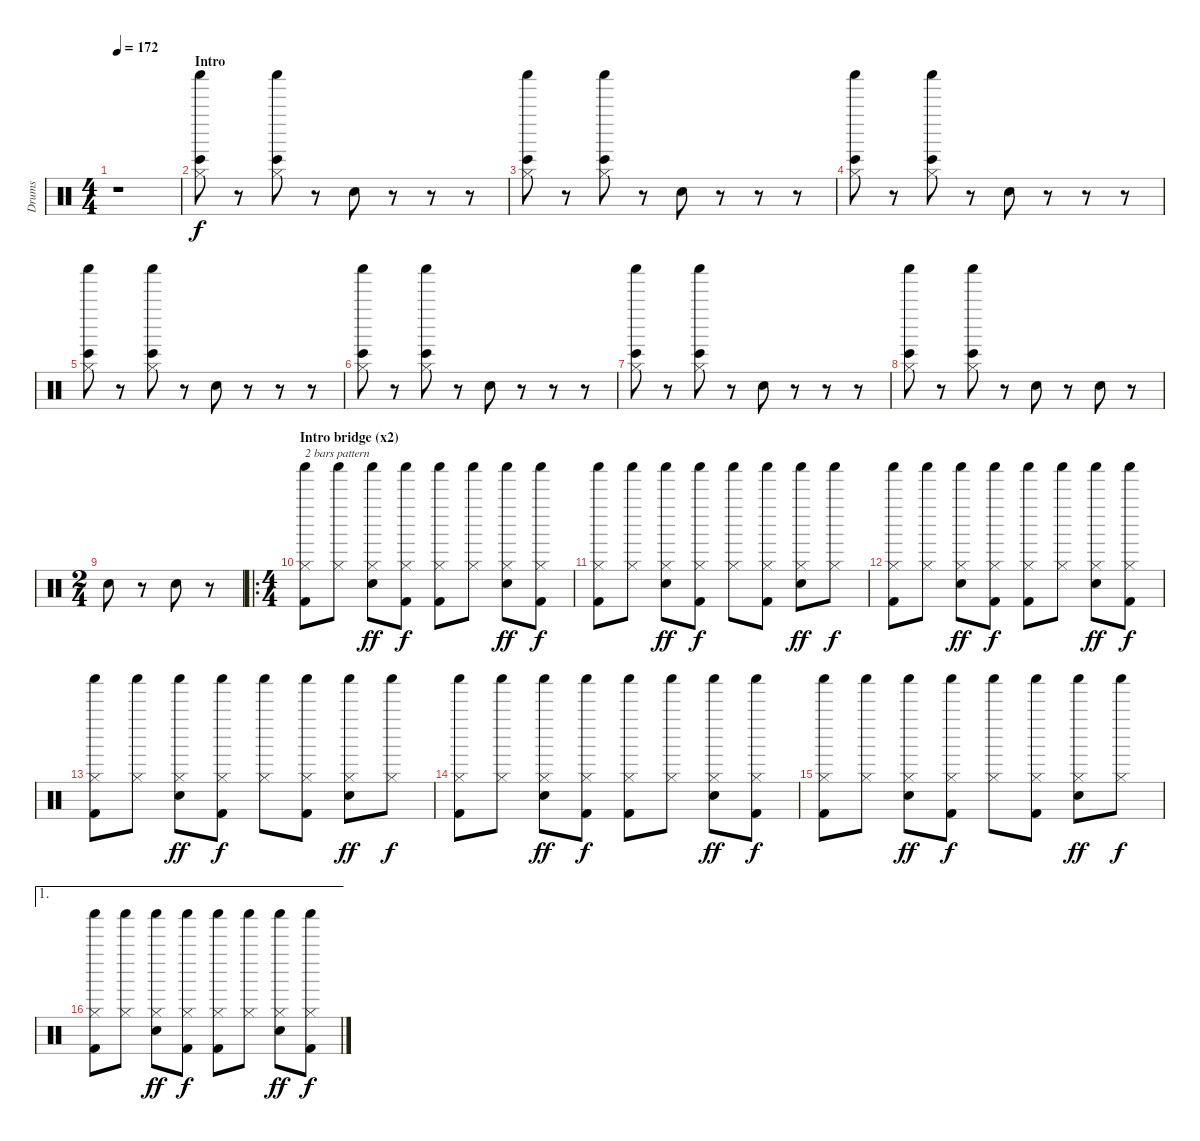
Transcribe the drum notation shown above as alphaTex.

\track ("Drums" "Drums") {instrument percussion}
\staff {score}
\articulation defaults
\ts (4 4)
\tempo 172
\clef neutral
\ks c
r.1{dy f} |
\section ("" "Intro")
("Shaker (hit)" "Bongo High (hit)" "Hi-Hat (closed)").8 r.8 ("Shaker (hit)" "Bongo High (hit)" "Hi-Hat (closed)").8 r.8 "Electric Snare (hit)".8 r.8 r.8 r.8 |
("Shaker (hit)" "Bongo High (hit)" "Hi-Hat (closed)").8 r.8 ("Shaker (hit)" "Bongo High (hit)" "Hi-Hat (closed)").8 r.8 "Electric Snare (hit)".8 r.8 r.8 r.8 |
("Shaker (hit)" "Bongo High (hit)" "Hi-Hat (closed)").8 r.8 ("Shaker (hit)" "Bongo High (hit)" "Hi-Hat (closed)").8 r.8 "Electric Snare (hit)".8 r.8 r.8 r.8 |
("Shaker (hit)" "Bongo High (hit)" "Hi-Hat (closed)").8 r.8 ("Shaker (hit)" "Bongo High (hit)" "Hi-Hat (closed)").8 r.8 "Electric Snare (hit)".8 r.8 r.8 r.8 |
("Shaker (hit)" "Bongo High (hit)" "Hi-Hat (closed)").8 r.8 ("Shaker (hit)" "Bongo High (hit)" "Hi-Hat (closed)").8 r.8 "Electric Snare (hit)".8 r.8 r.8 r.8 |
("Shaker (hit)" "Bongo High (hit)" "Hi-Hat (closed)").8 r.8 ("Shaker (hit)" "Bongo High (hit)" "Hi-Hat (closed)").8 r.8 "Electric Snare (hit)".8 r.8 r.8 r.8 |
("Shaker (hit)" "Bongo High (hit)" "Hi-Hat (closed)").8 r.8 ("Shaker (hit)" "Bongo High (hit)" "Hi-Hat (closed)").8 r.8 "Electric Snare (hit)".8 r.8 "Electric Snare (hit)".8 r.8 |
\ts (2 4)
"Electric Snare (hit)".8 r.8 "Electric Snare (hit)".8 r.8 |
\ro
\ts (4 4)
\section ("" "Intro bridge (x2)")
("Hi-Hat (closed)" "Shaker (hit)" "Kick (hit) 2").8{txt "2 bars pattern"} ("Hi-Hat (closed)" "Shaker (hit)").8 ("Hi-Hat (closed)" "Shaker (hit)" "Electric Snare (hit)").8{dy ff} ("Hi-Hat (closed)" "Shaker (hit)" "Kick (hit) 2").8{dy f} ("Hi-Hat (closed)" "Shaker (hit)" "Kick (hit) 2").8 ("Hi-Hat (closed)" "Shaker (hit)").8 ("Hi-Hat (closed)" "Shaker (hit)" "Electric Snare (hit)").8{dy ff} ("Hi-Hat (closed)" "Shaker (hit)" "Kick (hit) 2").8{dy f} |
("Hi-Hat (closed)" "Shaker (hit)" "Kick (hit) 2").8 ("Hi-Hat (closed)" "Shaker (hit)").8 ("Hi-Hat (closed)" "Shaker (hit)" "Electric Snare (hit)").8{dy ff} ("Hi-Hat (closed)" "Shaker (hit)" "Kick (hit) 2").8{dy f} ("Hi-Hat (closed)" "Shaker (hit)").8 ("Hi-Hat (closed)" "Shaker (hit)" "Kick (hit) 2").8 ("Hi-Hat (closed)" "Shaker (hit)" "Electric Snare (hit)").8{dy ff} ("Hi-Hat (closed)" "Shaker (hit)").8{dy f} |
("Hi-Hat (closed)" "Shaker (hit)" "Kick (hit) 2").8 ("Hi-Hat (closed)" "Shaker (hit)").8 ("Hi-Hat (closed)" "Shaker (hit)" "Electric Snare (hit)").8{dy ff} ("Hi-Hat (closed)" "Shaker (hit)" "Kick (hit) 2").8{dy f} ("Hi-Hat (closed)" "Shaker (hit)" "Kick (hit) 2").8 ("Hi-Hat (closed)" "Shaker (hit)").8 ("Hi-Hat (closed)" "Shaker (hit)" "Electric Snare (hit)").8{dy ff} ("Hi-Hat (closed)" "Shaker (hit)" "Kick (hit) 2").8{dy f} |
("Hi-Hat (closed)" "Shaker (hit)" "Kick (hit) 2").8 ("Hi-Hat (closed)" "Shaker (hit)").8 ("Hi-Hat (closed)" "Shaker (hit)" "Electric Snare (hit)").8{dy ff} ("Hi-Hat (closed)" "Shaker (hit)" "Kick (hit) 2").8{dy f} ("Hi-Hat (closed)" "Shaker (hit)").8 ("Hi-Hat (closed)" "Shaker (hit)" "Kick (hit) 2").8 ("Hi-Hat (closed)" "Shaker (hit)" "Electric Snare (hit)").8{dy ff} ("Hi-Hat (closed)" "Shaker (hit)").8{dy f} |
("Hi-Hat (closed)" "Shaker (hit)" "Kick (hit) 2").8 ("Hi-Hat (closed)" "Shaker (hit)").8 ("Hi-Hat (closed)" "Shaker (hit)" "Electric Snare (hit)").8{dy ff} ("Hi-Hat (closed)" "Shaker (hit)" "Kick (hit) 2").8{dy f} ("Hi-Hat (closed)" "Shaker (hit)" "Kick (hit) 2").8 ("Hi-Hat (closed)" "Shaker (hit)").8 ("Hi-Hat (closed)" "Shaker (hit)" "Electric Snare (hit)").8{dy ff} ("Hi-Hat (closed)" "Shaker (hit)" "Kick (hit) 2").8{dy f} |
("Hi-Hat (closed)" "Shaker (hit)" "Kick (hit) 2").8 ("Hi-Hat (closed)" "Shaker (hit)").8 ("Hi-Hat (closed)" "Shaker (hit)" "Electric Snare (hit)").8{dy ff} ("Hi-Hat (closed)" "Shaker (hit)" "Kick (hit) 2").8{dy f} ("Hi-Hat (closed)" "Shaker (hit)").8 ("Hi-Hat (closed)" "Shaker (hit)" "Kick (hit) 2").8 ("Hi-Hat (closed)" "Shaker (hit)" "Electric Snare (hit)").8{dy ff} ("Hi-Hat (closed)" "Shaker (hit)").8{dy f} |
\ae 1
("Hi-Hat (closed)" "Shaker (hit)" "Kick (hit) 2").8 ("Hi-Hat (closed)" "Shaker (hit)").8 ("Hi-Hat (closed)" "Shaker (hit)" "Electric Snare (hit)").8{dy ff} ("Hi-Hat (closed)" "Shaker (hit)" "Kick (hit) 2").8{dy f} ("Hi-Hat (closed)" "Shaker (hit)" "Kick (hit) 2").8 ("Hi-Hat (closed)" "Shaker (hit)").8 ("Hi-Hat (closed)" "Shaker (hit)" "Electric Snare (hit)").8{dy ff} ("Hi-Hat (closed)" "Shaker (hit)" "Kick (hit) 2").8{dy f}
